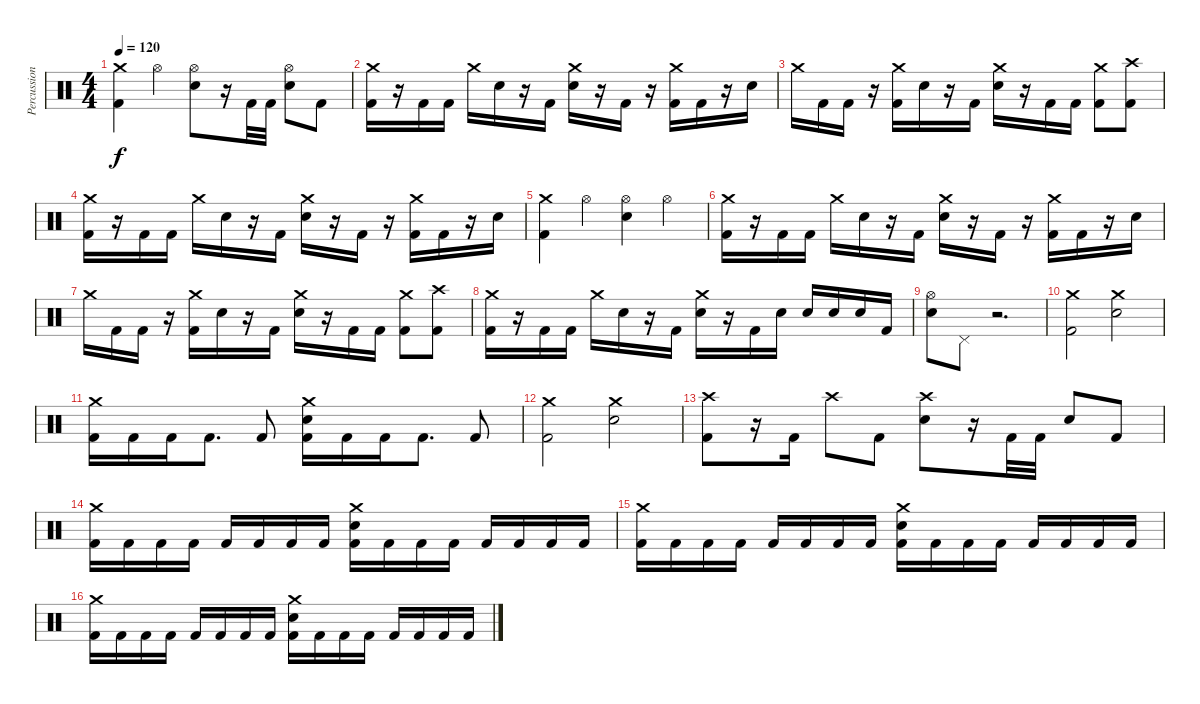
\track ("Percussion" "Percussion") {instrument percussion}
\staff {score}
\articulation defaults
\ts (4 4)
\tempo 120
\clef neutral
\ks c
("Crash medium (hit)" "Kick (hit) 2").4{dy f} "Hi-Hat (open)".4 ("Hi-Hat (open)" "Electric Snare (hit)").8 r.16 "Kick (hit) 2".32 "Kick (hit) 2".32 ("Hi-Hat (open)" "Electric Snare (hit)").8 "Kick (hit) 2".8 |
("Crash medium (hit)" "Kick (hit) 2").16 r.16 "Kick (hit) 2".16 "Kick (hit) 2".16 "Crash medium (hit)".16 "Electric Snare (hit)".16 r.16 "Kick (hit) 2".16 ("Crash medium (hit)" "Electric Snare (hit)").16 r.16 "Kick (hit) 2".16 r.16 ("Crash medium (hit)" "Kick (hit) 2").16 "Kick (hit) 2".16 r.16 "Electric Snare (hit)".16 |
"Crash medium (hit)".16 "Kick (hit) 2".16 "Kick (hit) 2".16 r.16 ("Crash medium (hit)" "Kick (hit) 2").16 "Electric Snare (hit)".16 r.16 "Kick (hit) 2".16 ("Crash medium (hit)" "Electric Snare (hit)").16 r.16 "Kick (hit) 2".16 "Kick (hit) 2".16 ("Crash medium (hit)" "Kick (hit) 2").8 ("Crash high (hit)" "Kick (hit) 2").8 |
("Crash medium (hit)" "Kick (hit) 2").16 r.16 "Kick (hit) 2".16 "Kick (hit) 2".16 "Crash medium (hit)".16 "Electric Snare (hit)".16 r.16 "Kick (hit) 2".16 ("Crash medium (hit)" "Electric Snare (hit)").16 r.16 "Kick (hit) 2".16 r.16 ("Crash medium (hit)" "Kick (hit) 2").16 "Kick (hit) 2".16 r.16 "Electric Snare (hit)".16 |
("Crash medium (hit)" "Kick (hit) 2").4 "Hi-Hat (open)".4 ("Hi-Hat (open)" "Electric Snare (hit)").4 "Hi-Hat (open)".4 |
("Crash medium (hit)" "Kick (hit) 2").16 r.16 "Kick (hit) 2".16 "Kick (hit) 2".16 "Crash medium (hit)".16 "Electric Snare (hit)".16 r.16 "Kick (hit) 2".16 ("Crash medium (hit)" "Electric Snare (hit)").16 r.16 "Kick (hit) 2".16 r.16 ("Crash medium (hit)" "Kick (hit) 2").16 "Kick (hit) 2".16 r.16 "Electric Snare (hit)".16 |
"Crash medium (hit)".16 "Kick (hit) 2".16 "Kick (hit) 2".16 r.16 ("Crash medium (hit)" "Kick (hit) 2").16 "Electric Snare (hit)".16 r.16 "Kick (hit) 2".16 ("Crash medium (hit)" "Electric Snare (hit)").16 r.16 "Kick (hit) 2".16 "Kick (hit) 2".16 ("Crash medium (hit)" "Kick (hit) 2").8 ("Crash high (hit)" "Kick (hit) 2").8 |
("Crash medium (hit)" "Kick (hit) 2").16 r.16 "Kick (hit) 2".16 "Kick (hit) 2".16 "Crash medium (hit)".16 "Electric Snare (hit)".16 r.16 "Kick (hit) 2".16 ("Crash medium (hit)" "Electric Snare (hit)").16 r.16 "Kick (hit) 2".16 "Electric Snare (hit)".16 "Electric Snare (hit)".16 "Electric Snare (hit)".16 "Electric Snare (hit)".16 "Kick (hit) 2".16 |
("Hi-Hat (open)" "Electric Snare (hit)").8 "Pedal Hi-Hat (hit)".8 r.2{d} |
("Crash medium (hit)" "Kick (hit) 2").2 ("Crash medium (hit)" "Electric Snare (hit)").2 |
("Crash medium (hit)" "Kick (hit) 2").16 "Kick (hit) 2".16 "Kick (hit) 2".16 "Kick (hit) 2".8{d} "Kick (hit) 2".8 ("Crash medium (hit)" "Electric Snare (hit)" "Kick (hit) 2").16 "Kick (hit) 2".16 "Kick (hit) 2".16 "Kick (hit) 2".8{d} "Kick (hit) 2".8 |
("Crash medium (hit)" "Kick (hit) 2").2 ("Crash medium (hit)" "Electric Snare (hit)").2 |
("Crash high (hit)" "Kick (hit) 2").8 r.16 "Kick (hit) 2".16 "Crash high (hit)".8 "Kick (hit) 2".8 ("Crash high (hit)" "Electric Snare (hit)").8 r.16 "Kick (hit) 2".32 "Kick (hit) 2".32 "Electric Snare (hit)".8 "Kick (hit) 2".8 |
("Crash medium (hit)" "Kick (hit) 2").16 "Kick (hit) 2".16 "Kick (hit) 2".16 "Kick (hit) 2".16 "Kick (hit) 2".16 "Kick (hit) 2".16 "Kick (hit) 2".16 "Kick (hit) 2".16 ("Crash medium (hit)" "Electric Snare (hit)" "Kick (hit) 2").16 "Kick (hit) 2".16 "Kick (hit) 2".16 "Kick (hit) 2".16 "Kick (hit) 2".16 "Kick (hit) 2".16 "Kick (hit) 2".16 "Kick (hit) 2".16 |
("Crash medium (hit)" "Kick (hit) 2").16 "Kick (hit) 2".16 "Kick (hit) 2".16 "Kick (hit) 2".16 "Kick (hit) 2".16 "Kick (hit) 2".16 "Kick (hit) 2".16 "Kick (hit) 2".16 ("Crash medium (hit)" "Electric Snare (hit)" "Kick (hit) 2").16 "Kick (hit) 2".16 "Kick (hit) 2".16 "Kick (hit) 2".16 "Kick (hit) 2".16 "Kick (hit) 2".16 "Kick (hit) 2".16 "Kick (hit) 2".16 |
("Crash medium (hit)" "Kick (hit) 2").16 "Kick (hit) 2".16 "Kick (hit) 2".16 "Kick (hit) 2".16 "Kick (hit) 2".16 "Kick (hit) 2".16 "Kick (hit) 2".16 "Kick (hit) 2".16 ("Crash medium (hit)" "Electric Snare (hit)" "Kick (hit) 2").16 "Kick (hit) 2".16 "Kick (hit) 2".16 "Kick (hit) 2".16 "Kick (hit) 2".16 "Kick (hit) 2".16 "Kick (hit) 2".16 "Kick (hit) 2".16
